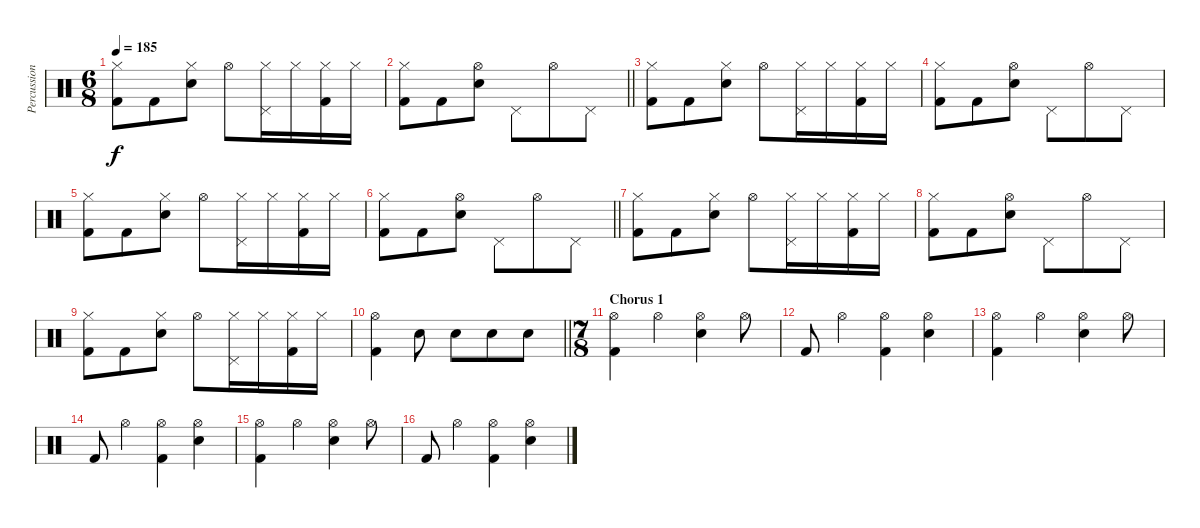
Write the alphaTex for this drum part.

\track ("Percussion" "Percussion") {instrument percussion}
\staff {score}
\articulation defaults
\ts (6 8)
\tempo 185
\clef neutral
\ks c
("Hi-Hat (closed)" "Kick (hit) 2").8{dy f} "Kick (hit) 2".8 ("Hi-Hat (closed)" "Snare (hit) 2").8 "Hi-Hat (open)".8 ("Hi-Hat (closed)" "Pedal Hi-Hat (hit)").16 "Hi-Hat (closed)".16 ("Hi-Hat (closed)" "Kick (hit) 2").16 "Hi-Hat (closed)".16 |
\barLineRight lightlight
("Hi-Hat (closed)" "Kick (hit) 2").8 "Kick (hit) 2".8 ("Hi-Hat (open)" "Snare (hit) 2").8 "Pedal Hi-Hat (hit)".8 "Hi-Hat (open)".8 "Pedal Hi-Hat (hit)".8 |
("Hi-Hat (closed)" "Kick (hit) 2").8 "Kick (hit) 2".8 ("Hi-Hat (closed)" "Snare (hit) 2").8 "Hi-Hat (open)".8 ("Hi-Hat (closed)" "Pedal Hi-Hat (hit)").16 "Hi-Hat (closed)".16 ("Hi-Hat (closed)" "Kick (hit) 2").16 "Hi-Hat (closed)".16 |
("Hi-Hat (closed)" "Kick (hit) 2").8 "Kick (hit) 2".8 ("Hi-Hat (open)" "Snare (hit) 2").8 "Pedal Hi-Hat (hit)".8 "Hi-Hat (open)".8 "Pedal Hi-Hat (hit)".8 |
("Hi-Hat (closed)" "Kick (hit) 2").8 "Kick (hit) 2".8 ("Hi-Hat (closed)" "Snare (hit) 2").8 "Hi-Hat (open)".8 ("Hi-Hat (closed)" "Pedal Hi-Hat (hit)").16 "Hi-Hat (closed)".16 ("Hi-Hat (closed)" "Kick (hit) 2").16 "Hi-Hat (closed)".16 |
\barLineRight lightlight
("Hi-Hat (closed)" "Kick (hit) 2").8 "Kick (hit) 2".8 ("Hi-Hat (open)" "Snare (hit) 2").8 "Pedal Hi-Hat (hit)".8 "Hi-Hat (open)".8 "Pedal Hi-Hat (hit)".8 |
("Hi-Hat (closed)" "Kick (hit) 2").8 "Kick (hit) 2".8 ("Hi-Hat (closed)" "Snare (hit) 2").8 "Hi-Hat (open)".8 ("Hi-Hat (closed)" "Pedal Hi-Hat (hit)").16 "Hi-Hat (closed)".16 ("Hi-Hat (closed)" "Kick (hit) 2").16 "Hi-Hat (closed)".16 |
("Hi-Hat (closed)" "Kick (hit) 2").8 "Kick (hit) 2".8 ("Hi-Hat (open)" "Snare (hit) 2").8 "Pedal Hi-Hat (hit)".8 "Hi-Hat (open)".8 "Pedal Hi-Hat (hit)".8 |
("Hi-Hat (closed)" "Kick (hit) 2").8 "Kick (hit) 2".8 ("Hi-Hat (closed)" "Snare (hit) 2").8 "Hi-Hat (open)".8 ("Hi-Hat (closed)" "Pedal Hi-Hat (hit)").16 "Hi-Hat (closed)".16 ("Hi-Hat (closed)" "Kick (hit) 2").16 "Hi-Hat (closed)".16 |
\barLineRight lightlight
("Hi-Hat (open)" "Kick (hit) 2").4 "Snare (hit) 2".8 "Snare (hit) 2".8 "Snare (hit) 2".8 "Snare (hit) 2".8 |
\ts (7 8)
\section ("" "Chorus 1")
("Hi-Hat (open)" "Kick (hit) 2").4 "Hi-Hat (open)".4 ("Hi-Hat (open)" "Snare (hit) 2").4 "Hi-Hat (open)".8 |
"Kick (hit) 2".8 "Hi-Hat (open)".4 ("Hi-Hat (open)" "Kick (hit) 2").4 ("Hi-Hat (open)" "Snare (hit) 2").4 |
("Hi-Hat (open)" "Kick (hit) 2").4 "Hi-Hat (open)".4 ("Hi-Hat (open)" "Snare (hit) 2").4 "Hi-Hat (open)".8 |
"Kick (hit) 2".8 "Hi-Hat (open)".4 ("Hi-Hat (open)" "Kick (hit) 2").4 ("Hi-Hat (open)" "Snare (hit) 2").4 |
("Hi-Hat (open)" "Kick (hit) 2").4 "Hi-Hat (open)".4 ("Hi-Hat (open)" "Snare (hit) 2").4 "Hi-Hat (open)".8 |
"Kick (hit) 2".8 "Hi-Hat (open)".4 ("Hi-Hat (open)" "Kick (hit) 2").4 ("Hi-Hat (open)" "Snare (hit) 2").4
